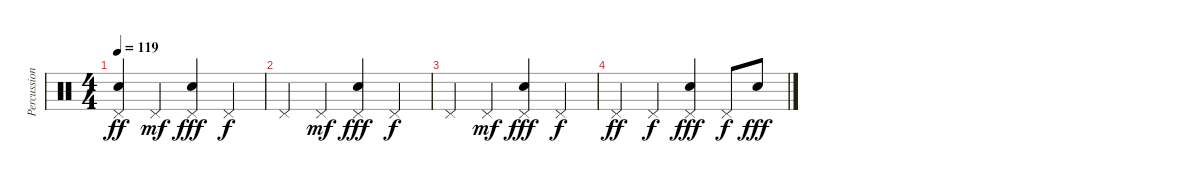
\track ("Percussion" "Percussion") {instrument percussion}
\staff {score}
\articulation defaults
\ts (4 4)
\tempo 119
\clef neutral
\ks c
("Pedal Hi-Hat (hit)" "Electric Snare (hit)").4{dy ff} "Pedal Hi-Hat (hit)".4{dy mf} ("Pedal Hi-Hat (hit)" "Electric Snare (hit)").4{dy fff} "Pedal Hi-Hat (hit)".4{dy f} |
"Pedal Hi-Hat (hit)".4 "Pedal Hi-Hat (hit)".4{dy mf} ("Pedal Hi-Hat (hit)" "Electric Snare (hit)").4{dy fff} "Pedal Hi-Hat (hit)".4{dy f} |
"Pedal Hi-Hat (hit)".4 "Pedal Hi-Hat (hit)".4{dy mf} ("Pedal Hi-Hat (hit)" "Electric Snare (hit)").4{dy fff} "Pedal Hi-Hat (hit)".4{dy f} |
"Pedal Hi-Hat (hit)".4{dy ff} "Pedal Hi-Hat (hit)".4{dy f} ("Pedal Hi-Hat (hit)" "Electric Snare (hit)").4{dy fff} "Pedal Hi-Hat (hit)".8{dy f} "Electric Snare (hit)".8{dy fff}
